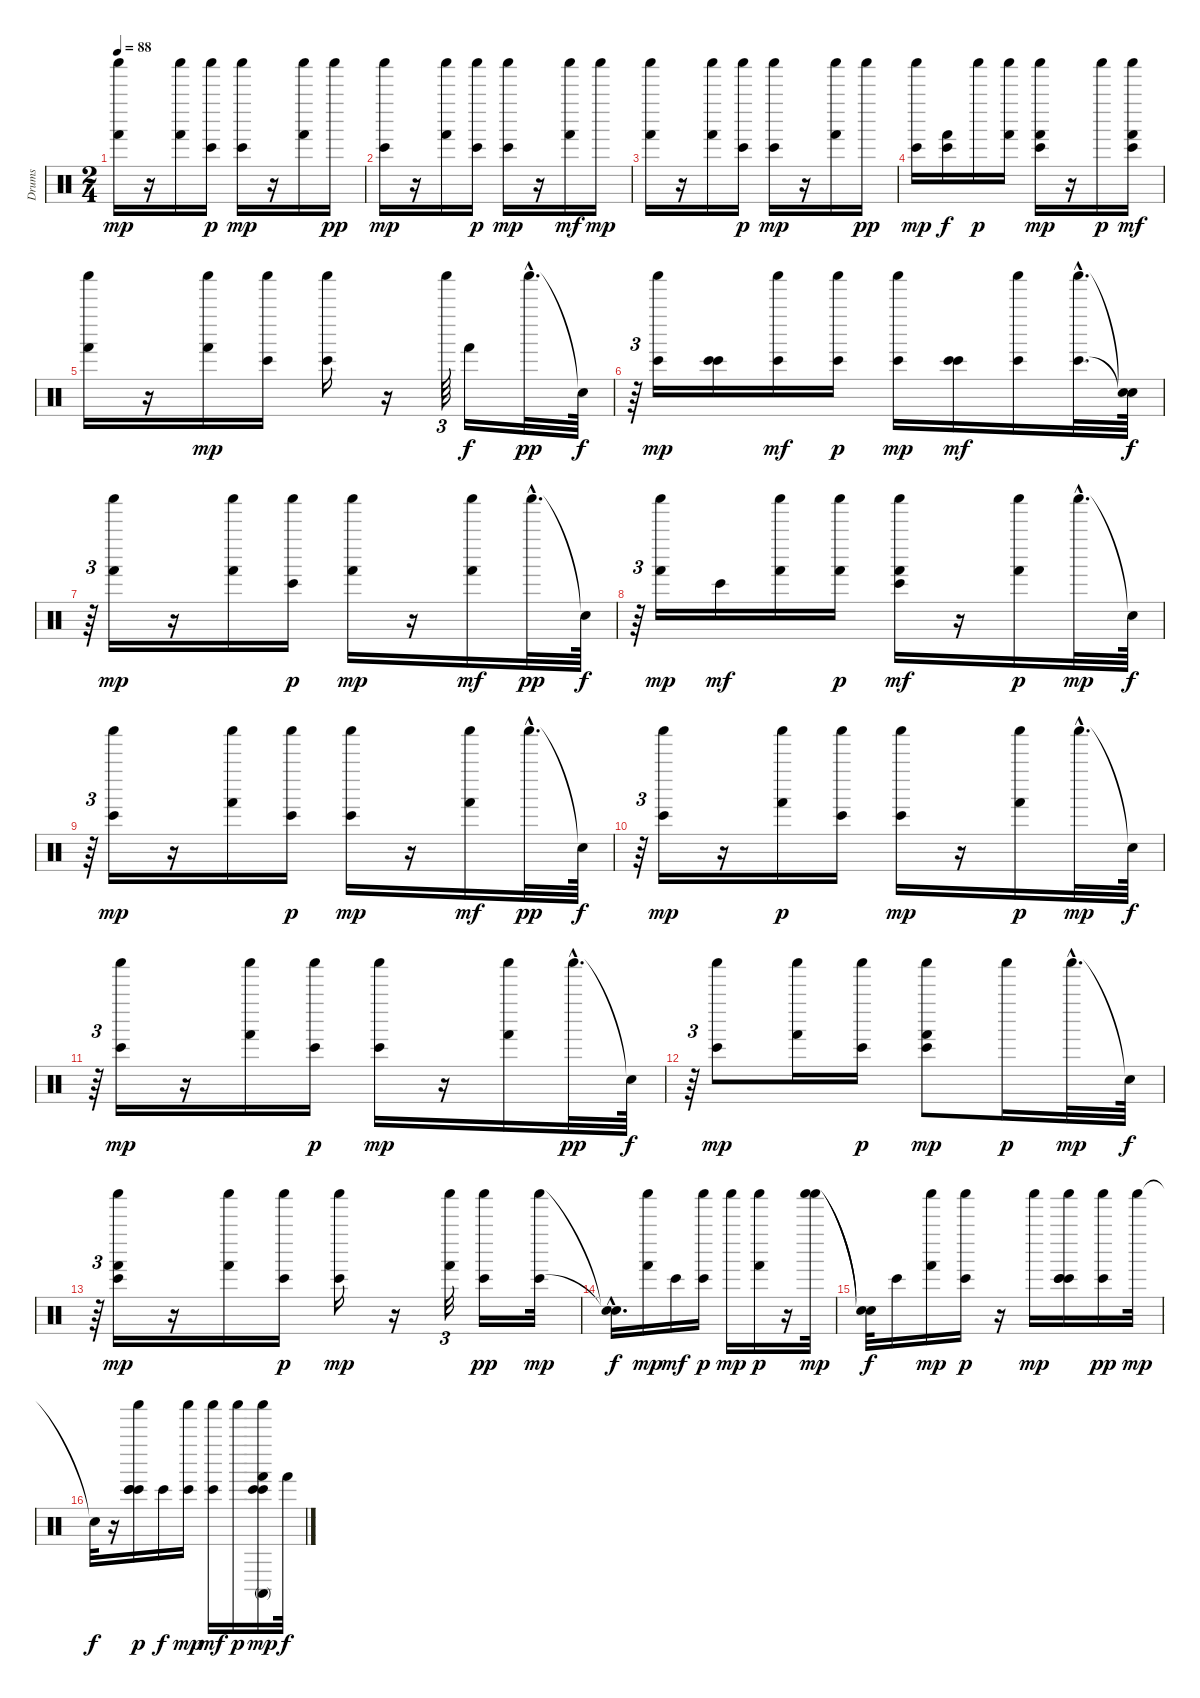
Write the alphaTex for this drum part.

\track ("Drums" "Drums") {instrument percussion}
\staff {score}
\articulation defaults
\ts (2 4)
\tempo 88
\clef neutral
\ks c
("Hand (hit)" "Shaker (hit)").16{dy mp} r.16 ("Hand (hit)" "Shaker (hit)").16 ("Bongo High (hit)" "Shaker (hit)").16{dy p} ("Shaker (hit)" "Bongo High (hit)").16{dy mp} r.16 ("Shaker (hit)" "Hand (hit)").16 "Shaker (hit)".16{dy pp} |
("Shaker (hit)" "Bongo High (hit)").16{dy mp} r.16 ("Shaker (hit)" "Hand (hit)").16 ("Bongo High (hit)" "Shaker (hit)").16{dy p} ("Shaker (hit)" "Bongo High (hit)").16{dy mp} r.16 ("Shaker (hit)" "Hand (hit)").16{dy mf} "Shaker (hit)".16{dy mp} |
("Shaker (hit)" "Hand (hit)").16 r.16 ("Hand (hit)" "Shaker (hit)").16 ("Bongo High (hit)" "Shaker (hit)").16{dy p} ("Bongo High (hit)" "Shaker (hit)").16{dy mp} r.16 ("Shaker (hit)" "Hand (hit)").16 "Shaker (hit)".16{dy pp} |
("Bongo High (hit)" "Shaker (hit)").16{dy mp} ("Bongo High (hit)" "Hand (hit)").16{dy f} "Shaker (hit)".16{dy p} ("Hand (hit)" "Shaker (hit)").16 ("Bongo High (hit)" "Shaker (hit)" "Hand (hit)").16{dy mp} r.16 "Shaker (hit)".16{dy p} ("Bongo High (hit)" "Shaker (hit)" "Hand (hit)").16{dy mf} |
("Shaker (hit)" "Hand (hit)").16 r.16 ("Shaker (hit)" "Hand (hit)").16{dy mp} ("Shaker (hit)" "Bongo High (hit)").16 ("Shaker (hit)" "Bongo High (hit)").16 r.16 "Shaker (hit)".64{tu (3 2)} "Hand (hit)".16{dy f} "Shaker (hit)"{hac}.32{d dy pp} "Snare (hit)"{t}.64{dy f} |
r.64{tu (3 2)} ("Shaker (hit)" "Bongo High (hit)").16{dy mp} ("Bongo High (hit)" "Bongo High (hit)").16 ("Shaker (hit)" "Bongo High (hit)").16{dy mf} ("Bongo High (hit)" "Shaker (hit)").16{dy p} ("Shaker (hit)" "Bongo High (hit)").16{dy mp} ("Bongo High (hit)" "Bongo High (hit)").16{dy mf} ("Shaker (hit)" "Bongo High (hit)").16 ("Shaker (hit)"{hac} "Bongo High (hit)"{hac}).32{d} ("Snare (hit)"{t} "Snare (hit)"{t}).64{dy f} |
r.64{tu (3 2)} ("Hand (hit)" "Shaker (hit)").16{dy mp} r.16 ("Hand (hit)" "Shaker (hit)").16 ("Bongo High (hit)" "Shaker (hit)").16{dy p} ("Hand (hit)" "Shaker (hit)").16{dy mp} r.16 ("Shaker (hit)" "Hand (hit)").16{dy mf} "Shaker (hit)"{hac}.32{d dy pp} "Snare (hit)"{t}.64{dy f} |
r.64{tu (3 2)} ("Shaker (hit)" "Hand (hit)").16{dy mp} "Bongo High (hit)".16{dy mf} ("Shaker (hit)" "Hand (hit)").16 ("Hand (hit)" "Shaker (hit)").16{dy p} ("Shaker (hit)" "Hand (hit)" "Bongo High (hit)").16{dy mf} r.16 ("Shaker (hit)" "Hand (hit)").16{dy p} "Shaker (hit)"{hac}.32{d dy mp} "Snare (hit)"{t}.64{dy f} |
r.64{tu (3 2)} ("Shaker (hit)" "Bongo High (hit)").16{dy mp} r.16 ("Hand (hit)" "Shaker (hit)").16 ("Bongo High (hit)" "Shaker (hit)").16{dy p} ("Bongo High (hit)" "Shaker (hit)").16{dy mp} r.16 ("Shaker (hit)" "Hand (hit)").16{dy mf} "Shaker (hit)"{hac}.32{d dy pp} "Snare (hit)"{t}.64{dy f} |
r.64{tu (3 2)} ("Shaker (hit)" "Bongo High (hit)").16{dy mp} r.16 ("Shaker (hit)" "Hand (hit)").16{dy p} ("Bongo High (hit)" "Shaker (hit)").16 ("Shaker (hit)" "Bongo High (hit)").16{dy mp} r.16 ("Hand (hit)" "Shaker (hit)").16{dy p} "Shaker (hit)"{hac}.32{d dy mp} "Snare (hit)"{t}.64{dy f} |
r.64{tu (3 2)} ("Shaker (hit)" "Bongo High (hit)").16{dy mp} r.16 ("Hand (hit)" "Shaker (hit)").16 ("Bongo High (hit)" "Shaker (hit)").16{dy p} ("Shaker (hit)" "Bongo High (hit)").16{dy mp} r.16 ("Hand (hit)" "Shaker (hit)").16 "Shaker (hit)"{hac}.32{d dy pp} "Snare (hit)"{t}.64{dy f} |
r.64{tu (3 2)} ("Bongo High (hit)" "Shaker (hit)").8{dy mp} ("Shaker (hit)" "Hand (hit)").16 ("Bongo High (hit)" "Shaker (hit)").16{dy p} ("Bongo High (hit)" "Shaker (hit)" "Hand (hit)").8{dy mp} "Shaker (hit)".16{dy p} "Shaker (hit)"{hac}.32{d dy mp} "Snare (hit)"{t}.64{dy f} |
r.64{tu (3 2)} ("Hand (hit)" "Bongo High (hit)" "Shaker (hit)").16{dy mp} r.16 ("Hand (hit)" "Shaker (hit)").16 ("Bongo High (hit)" "Shaker (hit)").16{dy p} ("Bongo High (hit)" "Shaker (hit)").16{dy mp} r.16 ("Shaker (hit)" "Hand (hit)").32{tu (3 2)} ("Bongo High (hit)" "Shaker (hit)").16{dy pp} ("Shaker (hit)" "Bongo High (hit)").32{dy mp} |
("Snare (hit)"{hac t} "Snare (hit)"{hac t}).16{d dy f} ("Shaker (hit)" "Hand (hit)").16{dy mp} "Bongo High (hit)".16{dy mf} ("Shaker (hit)" "Bongo High (hit)").16{dy p} "Shaker (hit)".16{dy mp} ("Hand (hit)" "Shaker (hit)").16{dy p} r.16 ("Shaker (hit)" "Shaker (hit)").32{dy mp} |
("Snare (hit)"{t} "Snare (hit)"{t}).32{dy f} "Bongo High (hit)".16 ("Hand (hit)" "Shaker (hit)").16{dy mp} ("Bongo High (hit)" "Shaker (hit)").16{dy p} r.16 "Shaker (hit)".16{dy mp} ("Bongo High (hit)" "Bongo High (hit)" "Shaker (hit)" "Bongo High (hit)").16 ("Shaker (hit)" "Bongo High (hit)").16{dy pp} "Shaker (hit)".32{dy mp} |
"Snare (hit)"{t}.32{dy f} r.16 ("Bongo High (hit)" "Bongo High (hit)" "Bongo High (hit)" "Shaker (hit)").16{dy p} "Bongo High (hit)".16{dy f} ("Shaker (hit)" "Bongo High (hit)").16{dy mp} ("Shaker (hit)" "Bongo High (hit)").16{dy mf} "Shaker (hit)".16{dy p} ("Hand (hit)" "Bongo High (hit)" "Conga high (mute)" "Bongo High (hit)" "Shaker (hit)").16{dy mp} "Hand (hit)".32{dy f}
